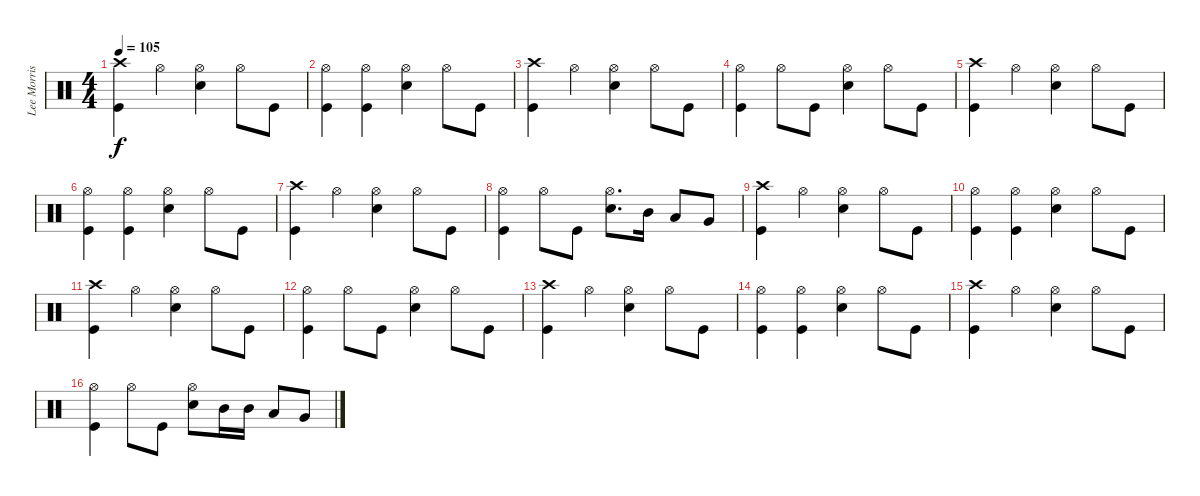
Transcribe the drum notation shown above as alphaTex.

\track ("Lee Morris" "Lee Morris") {instrument percussion}
\staff {score}
\articulation defaults
\ts (4 4)
\tempo 105
\clef neutral
\ks c
("Kick (hit)" "Crash high (hit)").4{dy f} "Hi-Hat (open)".4 ("Snare (hit) 2" "Hi-Hat (open)").4 "Hi-Hat (open)".8 "Kick (hit)".8 |
("Kick (hit)" "Hi-Hat (open)").4 ("Kick (hit)" "Hi-Hat (open)").4 ("Snare (hit) 2" "Hi-Hat (open)").4 "Hi-Hat (open)".8 "Kick (hit)".8 |
("Kick (hit)" "Crash high (hit)").4 "Hi-Hat (open)".4 ("Snare (hit) 2" "Hi-Hat (open)").4 "Hi-Hat (open)".8 "Kick (hit)".8 |
("Kick (hit)" "Hi-Hat (open)").4 "Hi-Hat (open)".8 "Kick (hit)".8 ("Snare (hit) 2" "Hi-Hat (open)").4 "Hi-Hat (open)".8 "Kick (hit)".8 |
("Kick (hit)" "Crash high (hit)").4 "Hi-Hat (open)".4 ("Snare (hit) 2" "Hi-Hat (open)").4 "Hi-Hat (open)".8 "Kick (hit)".8 |
("Kick (hit)" "Hi-Hat (open)").4 ("Kick (hit)" "Hi-Hat (open)").4 ("Snare (hit) 2" "Hi-Hat (open)").4 "Hi-Hat (open)".8 "Kick (hit)".8 |
("Kick (hit)" "Crash high (hit)").4 "Hi-Hat (open)".4 ("Snare (hit) 2" "Hi-Hat (open)").4 "Hi-Hat (open)".8 "Kick (hit)".8 |
("Kick (hit)" "Hi-Hat (open)").4 "Hi-Hat (open)".8 "Kick (hit)".8 ("Snare (hit) 2" "Hi-Hat (open)").8{d} "Mid Tom (hit)".16 "Low Tom (hit)".8 "Very Low Tom (hit)".8 |
("Kick (hit)" "Crash high (hit)").4 "Hi-Hat (open)".4 ("Snare (hit) 2" "Hi-Hat (open)").4 "Hi-Hat (open)".8 "Kick (hit)".8 |
("Kick (hit)" "Hi-Hat (open)").4 ("Kick (hit)" "Hi-Hat (open)").4 ("Snare (hit) 2" "Hi-Hat (open)").4 "Hi-Hat (open)".8 "Kick (hit)".8 |
("Kick (hit)" "Crash high (hit)").4 "Hi-Hat (open)".4 ("Snare (hit) 2" "Hi-Hat (open)").4 "Hi-Hat (open)".8 "Kick (hit)".8 |
("Kick (hit)" "Hi-Hat (open)").4 "Hi-Hat (open)".8 "Kick (hit)".8 ("Snare (hit) 2" "Hi-Hat (open)").4 "Hi-Hat (open)".8 "Kick (hit)".8 |
("Kick (hit)" "Crash high (hit)").4 "Hi-Hat (open)".4 ("Snare (hit) 2" "Hi-Hat (open)").4 "Hi-Hat (open)".8 "Kick (hit)".8 |
("Kick (hit)" "Hi-Hat (open)").4 ("Kick (hit)" "Hi-Hat (open)").4 ("Snare (hit) 2" "Hi-Hat (open)").4 "Hi-Hat (open)".8 "Kick (hit)".8 |
("Kick (hit)" "Crash high (hit)").4 "Hi-Hat (open)".4 ("Snare (hit) 2" "Hi-Hat (open)").4 "Hi-Hat (open)".8 "Kick (hit)".8 |
("Kick (hit)" "Hi-Hat (open)").4 "Hi-Hat (open)".8 "Kick (hit)".8 ("Snare (hit) 2" "Hi-Hat (open)").8 "Mid Tom (hit)".16 "Mid Tom (hit)".16 "Low Tom (hit)".8 "Very Low Tom (hit)".8
